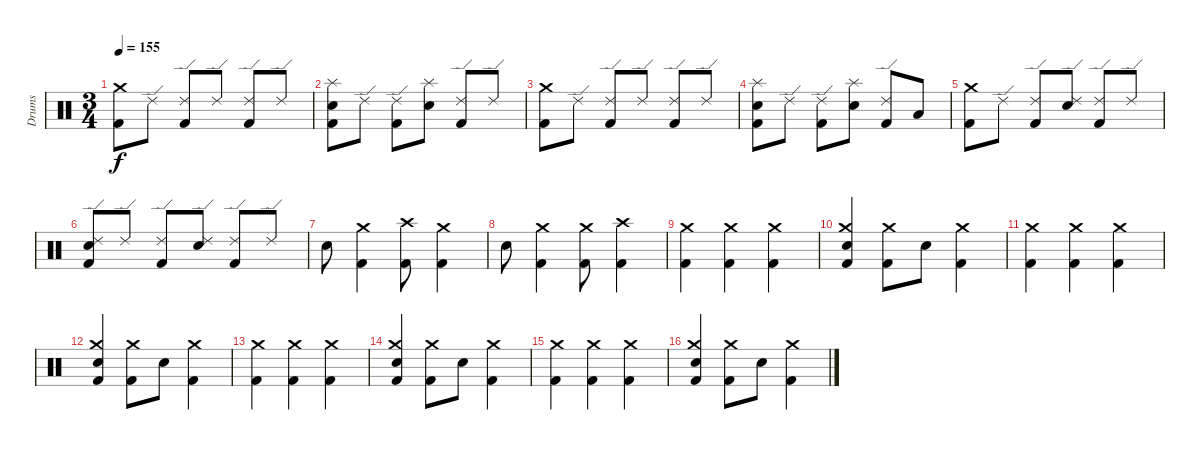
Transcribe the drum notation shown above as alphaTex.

\track ("Drums" "Drums") {instrument percussion}
\staff {score}
\articulation defaults
\ts (3 4)
\tempo 155
\clef neutral
\ks c
("Kick (hit) 2" "Crash medium (hit)").8{dy f} "Ride (edge) 2".8 ("Ride (edge) 2" "Kick (hit) 2").8 "Ride (edge) 2".8 ("Ride (edge) 2" "Kick (hit) 2").8 "Ride (edge) 2".8 |
("Snare (hit) 2" "Splash (hit)" "Kick (hit) 2").8 "Ride (edge) 2".8 ("Kick (hit) 2" "Ride (edge) 2").8 ("Splash (hit)" "Snare (hit) 2").8 ("Ride (edge) 2" "Kick (hit) 2").8 "Ride (edge) 2".8 |
("Kick (hit) 2" "Crash medium (hit)").8 "Ride (edge) 2".8 ("Ride (edge) 2" "Kick (hit) 2").8 "Ride (edge) 2".8 ("Ride (edge) 2" "Kick (hit) 2").8 "Ride (edge) 2".8 |
("Snare (hit) 2" "Splash (hit)" "Kick (hit) 2").8 "Ride (edge) 2".8 ("Kick (hit) 2" "Ride (edge) 2").8 ("Splash (hit)" "Snare (hit) 2").8 ("Ride (edge) 2" "Kick (hit) 2").8 "Low Tom (hit)".8 |
("Kick (hit) 2" "Crash medium (hit)").8 "Ride (edge) 2".8 ("Ride (edge) 2" "Kick (hit) 2").8 ("Ride (edge) 2" "Snare (hit) 2").8 ("Ride (edge) 2" "Kick (hit) 2").8 "Ride (edge) 2".8 |
("Ride (edge) 2" "Snare (hit) 2" "Kick (hit) 2").8 "Ride (edge) 2".8 ("Ride (edge) 2" "Kick (hit) 2").8 ("Ride (edge) 2" "Snare (hit) 2").8 ("Ride (edge) 2" "Kick (hit) 2").8 "Ride (edge) 2".8 |
"Snare (hit) 2".8 ("Kick (hit) 2" "Crash medium (hit)").4 ("Kick (hit) 2" "Crash high (hit)").8 ("Kick (hit) 2" "Crash medium (hit)").4 |
"Snare (hit) 2".8 ("Kick (hit) 2" "Crash medium (hit)").4 ("Kick (hit) 2" "Crash medium (hit)").8 ("Kick (hit) 2" "Crash high (hit)").4 |
("Kick (hit) 2" "Crash medium (hit)").4 ("Crash medium (hit)" "Kick (hit) 2").4 ("Crash medium (hit)" "Kick (hit) 2").4 |
("Crash medium (hit)" "Snare (hit) 2" "Kick (hit) 2").4 ("Crash medium (hit)" "Kick (hit) 2").8 "Snare (hit) 2".8 ("Kick (hit) 2" "Crash medium (hit)").4 |
("Kick (hit) 2" "Crash medium (hit)").4 ("Crash medium (hit)" "Kick (hit) 2").4 ("Crash medium (hit)" "Kick (hit) 2").4 |
("Crash medium (hit)" "Snare (hit) 2" "Kick (hit) 2").4 ("Crash medium (hit)" "Kick (hit) 2").8 "Snare (hit) 2".8 ("Kick (hit) 2" "Crash medium (hit)").4 |
("Kick (hit) 2" "Crash medium (hit)").4 ("Crash medium (hit)" "Kick (hit) 2").4 ("Crash medium (hit)" "Kick (hit) 2").4 |
("Crash medium (hit)" "Snare (hit) 2" "Kick (hit) 2").4 ("Crash medium (hit)" "Kick (hit) 2").8 "Snare (hit) 2".8 ("Kick (hit) 2" "Crash medium (hit)").4 |
("Kick (hit) 2" "Crash medium (hit)").4 ("Crash medium (hit)" "Kick (hit) 2").4 ("Crash medium (hit)" "Kick (hit) 2").4 |
("Crash medium (hit)" "Snare (hit) 2" "Kick (hit) 2").4 ("Crash medium (hit)" "Kick (hit) 2").8 "Snare (hit) 2".8 ("Kick (hit) 2" "Crash medium (hit)").4
